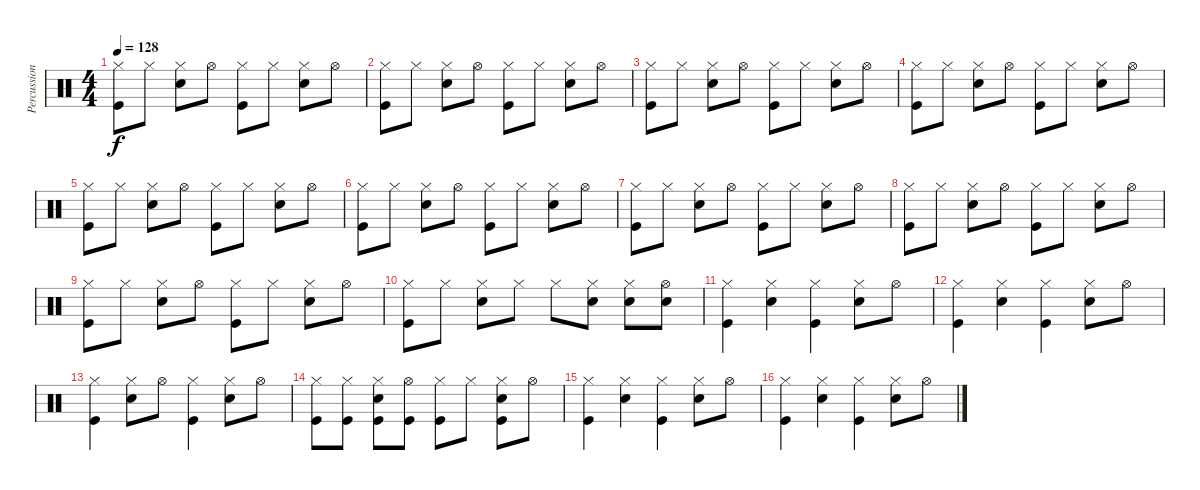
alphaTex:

\track ("Percussion" "Percussion") {instrument percussion}
\staff {score}
\articulation defaults
\ts (4 4)
\tempo 128
\clef neutral
\ks c
("Hi-Hat (closed)" "Kick (hit)").8{dy f} "Hi-Hat (closed)".8 ("Hi-Hat (closed)" "Snare (hit) 2").8 "Hi-Hat (open)".8 ("Hi-Hat (closed)" "Kick (hit)").8 "Hi-Hat (closed)".8 ("Hi-Hat (closed)" "Snare (hit) 2").8 "Hi-Hat (open)".8 |
("Hi-Hat (closed)" "Kick (hit)").8 "Hi-Hat (closed)".8 ("Hi-Hat (closed)" "Snare (hit) 2").8 "Hi-Hat (open)".8 ("Hi-Hat (closed)" "Kick (hit)").8 "Hi-Hat (closed)".8 ("Hi-Hat (closed)" "Snare (hit) 2").8 "Hi-Hat (open)".8 |
("Hi-Hat (closed)" "Kick (hit)").8 "Hi-Hat (closed)".8 ("Hi-Hat (closed)" "Snare (hit) 2").8 "Hi-Hat (open)".8 ("Hi-Hat (closed)" "Kick (hit)").8 "Hi-Hat (closed)".8 ("Hi-Hat (closed)" "Snare (hit) 2").8 "Hi-Hat (open)".8 |
("Hi-Hat (closed)" "Kick (hit)").8 "Hi-Hat (closed)".8 ("Hi-Hat (closed)" "Snare (hit) 2").8 "Hi-Hat (open)".8 ("Hi-Hat (closed)" "Kick (hit)").8 "Hi-Hat (closed)".8 ("Hi-Hat (closed)" "Snare (hit) 2").8 "Hi-Hat (open)".8 |
("Hi-Hat (closed)" "Kick (hit)").8 "Hi-Hat (closed)".8 ("Hi-Hat (closed)" "Snare (hit) 2").8 "Hi-Hat (open)".8 ("Hi-Hat (closed)" "Kick (hit)").8 "Hi-Hat (closed)".8 ("Hi-Hat (closed)" "Snare (hit) 2").8 "Hi-Hat (open)".8 |
("Hi-Hat (closed)" "Kick (hit)").8 "Hi-Hat (closed)".8 ("Hi-Hat (closed)" "Snare (hit) 2").8 "Hi-Hat (open)".8 ("Hi-Hat (closed)" "Kick (hit)").8 "Hi-Hat (closed)".8 ("Hi-Hat (closed)" "Snare (hit) 2").8 "Hi-Hat (open)".8 |
("Hi-Hat (closed)" "Kick (hit)").8 "Hi-Hat (closed)".8 ("Hi-Hat (closed)" "Snare (hit) 2").8 "Hi-Hat (open)".8 ("Hi-Hat (closed)" "Kick (hit)").8 "Hi-Hat (closed)".8 ("Hi-Hat (closed)" "Snare (hit) 2").8 "Hi-Hat (open)".8 |
("Hi-Hat (closed)" "Kick (hit)").8 "Hi-Hat (closed)".8 ("Hi-Hat (closed)" "Snare (hit) 2").8 "Hi-Hat (open)".8 ("Hi-Hat (closed)" "Kick (hit)").8 "Hi-Hat (closed)".8 ("Hi-Hat (closed)" "Snare (hit) 2").8 "Hi-Hat (open)".8 |
("Hi-Hat (closed)" "Kick (hit)").8 "Hi-Hat (closed)".8 ("Hi-Hat (closed)" "Snare (hit) 2").8 "Hi-Hat (open)".8 ("Hi-Hat (closed)" "Kick (hit)").8 "Hi-Hat (closed)".8 ("Hi-Hat (closed)" "Snare (hit) 2").8 "Hi-Hat (open)".8 |
("Hi-Hat (closed)" "Kick (hit)").8 "Hi-Hat (closed)".8 ("Hi-Hat (closed)" "Snare (hit) 2").8 "Hi-Hat (closed)".8 "Hi-Hat (closed)".8 ("Hi-Hat (closed)" "Snare (hit) 2").8 ("Hi-Hat (closed)" "Snare (hit) 2").8 ("Hi-Hat (open)" "Snare (hit) 2").8 |
("Hi-Hat (closed)" "Kick (hit)").4 ("Hi-Hat (closed)" "Snare (hit) 2").4 ("Hi-Hat (closed)" "Kick (hit)").4 ("Hi-Hat (closed)" "Snare (hit) 2").8 "Hi-Hat (open)".8 |
("Hi-Hat (closed)" "Kick (hit)").4 ("Hi-Hat (closed)" "Snare (hit) 2").4 ("Hi-Hat (closed)" "Kick (hit)").4 ("Hi-Hat (closed)" "Snare (hit) 2").8 "Hi-Hat (open)".8 |
("Hi-Hat (closed)" "Kick (hit)").4 ("Hi-Hat (closed)" "Snare (hit) 2").8 "Hi-Hat (open)".8 ("Hi-Hat (closed)" "Kick (hit)").4 ("Hi-Hat (closed)" "Snare (hit) 2").8 "Hi-Hat (open)".8 |
("Hi-Hat (closed)" "Kick (hit)").8 ("Hi-Hat (closed)" "Kick (hit)").8 ("Hi-Hat (closed)" "Kick (hit)" "Snare (hit) 2").8 ("Hi-Hat (open)" "Kick (hit)").8 ("Hi-Hat (closed)" "Kick (hit)").8 "Hi-Hat (closed)".8 ("Hi-Hat (closed)" "Kick (hit)" "Snare (hit) 2").8 "Hi-Hat (open)".8 |
("Hi-Hat (closed)" "Kick (hit)").4 ("Hi-Hat (closed)" "Snare (hit) 2").4 ("Hi-Hat (closed)" "Kick (hit)").4 ("Hi-Hat (closed)" "Snare (hit) 2").8 "Hi-Hat (open)".8 |
("Hi-Hat (closed)" "Kick (hit)").4 ("Hi-Hat (closed)" "Snare (hit) 2").4 ("Hi-Hat (closed)" "Kick (hit)").4 ("Hi-Hat (closed)" "Snare (hit) 2").8 "Hi-Hat (open)".8
